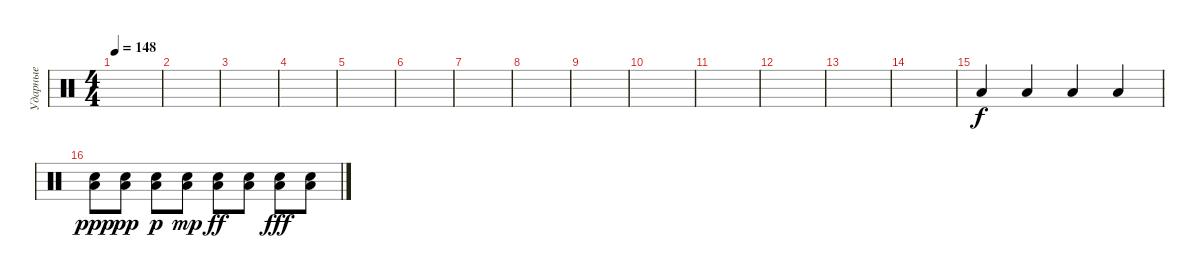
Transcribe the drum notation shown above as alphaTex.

\track ("Ударные" "Ударные") {instrument percussion}
\staff
\articulation defaults
\ts (4 4)
\tempo 148
\clef neutral
\ks c
|
|
|
|
|
|
|
|
|
|
|
|
|
|
"Low Floor Tom (hit)".4{dy f} "Low Floor Tom (hit)".4 "Low Floor Tom (hit)".4 "Low Floor Tom (hit)".4 |
("Snare (hit) 2" "Low Floor Tom (hit)").8{dy ppp} ("Snare (hit) 2" "Low Floor Tom (hit)").8{dy pp} ("Snare (hit) 2" "Low Floor Tom (hit)").8{dy p} ("Snare (hit) 2" "Low Floor Tom (hit)").8{dy mp} ("Snare (hit) 2" "Low Floor Tom (hit)").8{dy ff} ("Snare (hit) 2" "Low Floor Tom (hit)").8 ("Snare (hit) 2" "Low Floor Tom (hit)").8{dy fff} ("Snare (hit) 2" "Low Floor Tom (hit)").8
